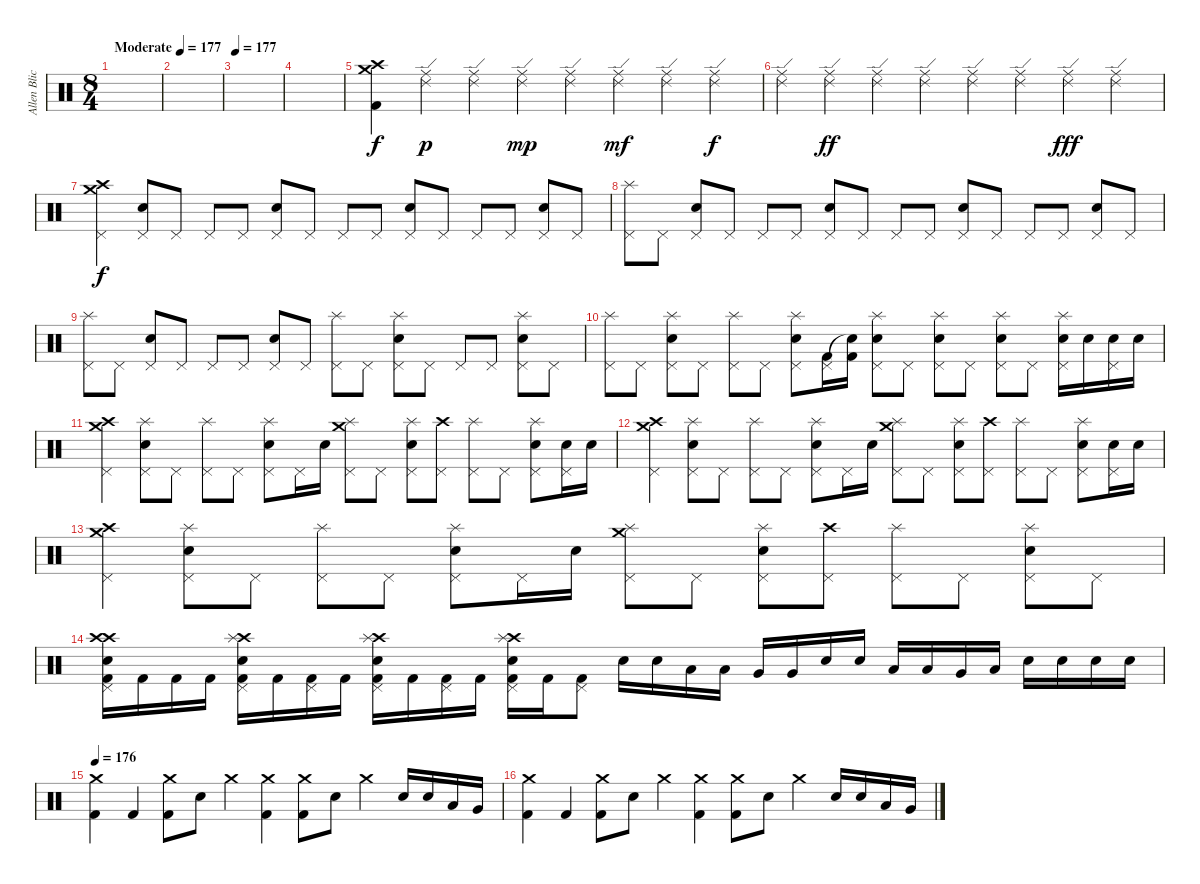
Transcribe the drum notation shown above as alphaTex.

\track ("Allen Blickle" "Allen Blic") {instrument percussion}
\staff {score}
\articulation defaults
\ts (8 4)
\tempo (177 "Moderate")
\tempo 175
\tempo (177 "Moderate")
\clef neutral
\ks c
|
|
\tempo 177
|
|
("Crash medium (hit)" "Crash high (hit)" "Kick (hit) 2").4 ("Ride (edge) 2" "Ride (middle)").4{dy p} ("Ride (edge) 2" "Ride (middle)").4 ("Ride (edge) 2" "Ride (middle)").4{dy mp} ("Ride (edge) 2" "Ride (middle)").4 ("Ride (edge) 2" "Ride (middle)").4{dy mf} ("Ride (edge) 2" "Ride (middle)").4 ("Ride (edge) 2" "Ride (middle)").4{dy f} |
("Ride (edge) 2" "Ride (middle)").4 ("Ride (edge) 2" "Ride (middle)").4{dy ff} ("Ride (edge) 2" "Ride (middle)").4 ("Ride (edge) 2" "Ride (middle)").4 ("Ride (edge) 2" "Ride (middle)").4 ("Ride (edge) 2" "Ride (middle)").4 ("Ride (edge) 2" "Ride (middle)").4{dy fff} ("Ride (edge) 2" "Ride (middle)").4 |
("Crash medium (hit)" "Pedal Hi-Hat (hit)" "Crash high (hit)").4{dy f} ("Pedal Hi-Hat (hit)" "Electric Snare (hit)").8 "Pedal Hi-Hat (hit)".8 "Pedal Hi-Hat (hit)".8 "Pedal Hi-Hat (hit)".8 ("Pedal Hi-Hat (hit)" "Electric Snare (hit)").8 "Pedal Hi-Hat (hit)".8 "Pedal Hi-Hat (hit)".8 "Pedal Hi-Hat (hit)".8 ("Pedal Hi-Hat (hit)" "Electric Snare (hit)").8 "Pedal Hi-Hat (hit)".8 "Pedal Hi-Hat (hit)".8 "Pedal Hi-Hat (hit)".8 ("Pedal Hi-Hat (hit)" "Electric Snare (hit)").8 "Pedal Hi-Hat (hit)".8 |
("Pedal Hi-Hat (hit)" "Splash (hit)").8 "Pedal Hi-Hat (hit)".8 ("Pedal Hi-Hat (hit)" "Electric Snare (hit)").8 "Pedal Hi-Hat (hit)".8 "Pedal Hi-Hat (hit)".8 "Pedal Hi-Hat (hit)".8 ("Pedal Hi-Hat (hit)" "Electric Snare (hit)").8 "Pedal Hi-Hat (hit)".8 "Pedal Hi-Hat (hit)".8 "Pedal Hi-Hat (hit)".8 ("Pedal Hi-Hat (hit)" "Electric Snare (hit)").8 "Pedal Hi-Hat (hit)".8 "Pedal Hi-Hat (hit)".8 "Pedal Hi-Hat (hit)".8 ("Pedal Hi-Hat (hit)" "Electric Snare (hit)").8 "Pedal Hi-Hat (hit)".8 |
("Pedal Hi-Hat (hit)" "Splash (hit)").8 "Pedal Hi-Hat (hit)".8 ("Pedal Hi-Hat (hit)" "Electric Snare (hit)").8 "Pedal Hi-Hat (hit)".8 "Pedal Hi-Hat (hit)".8 "Pedal Hi-Hat (hit)".8 ("Pedal Hi-Hat (hit)" "Electric Snare (hit)").8 "Pedal Hi-Hat (hit)".8 ("Pedal Hi-Hat (hit)" "Splash (hit)").8 "Pedal Hi-Hat (hit)".8 ("Pedal Hi-Hat (hit)" "Splash (hit)" "Electric Snare (hit)").8 "Pedal Hi-Hat (hit)".8 "Pedal Hi-Hat (hit)".8 "Pedal Hi-Hat (hit)".8 ("Pedal Hi-Hat (hit)" "Splash (hit)" "Electric Snare (hit)").8 "Pedal Hi-Hat (hit)".8 |
("Pedal Hi-Hat (hit)" "Splash (hit)").8 "Pedal Hi-Hat (hit)".8 ("Pedal Hi-Hat (hit)" "Splash (hit)" "Electric Snare (hit)").8 "Pedal Hi-Hat (hit)".8 ("Pedal Hi-Hat (hit)" "Splash (hit)").8 "Pedal Hi-Hat (hit)".8 ("Pedal Hi-Hat (hit)" "Splash (hit)" "Electric Snare (hit)").8 ("Pedal Hi-Hat (hit)" "Kick (hit) 2").16 ("Snare (hit)"{t} "Kick (hit) 2").16 ("Pedal Hi-Hat (hit)" "Splash (hit)" "Electric Snare (hit)").8 "Pedal Hi-Hat (hit)".8 ("Pedal Hi-Hat (hit)" "Splash (hit)" "Electric Snare (hit)").8 "Pedal Hi-Hat (hit)".8 ("Pedal Hi-Hat (hit)" "Splash (hit)" "Electric Snare (hit)").8 "Pedal Hi-Hat (hit)".8 ("Pedal Hi-Hat (hit)" "Splash (hit)" "Electric Snare (hit)").16 "Electric Snare (hit)".16 ("Pedal Hi-Hat (hit)" "Electric Snare (hit)").16 "Electric Snare (hit)".16 |
("Crash medium (hit)" "Pedal Hi-Hat (hit)" "Crash high (hit)").4 ("Pedal Hi-Hat (hit)" "Splash (hit)" "Electric Snare (hit)").8 "Pedal Hi-Hat (hit)".8 ("Pedal Hi-Hat (hit)" "Splash (hit)").8 "Pedal Hi-Hat (hit)".8 ("Pedal Hi-Hat (hit)" "Splash (hit)" "Electric Snare (hit)").8 "Pedal Hi-Hat (hit)".16 "Electric Snare (hit)".16 ("Crash medium (hit)" "Pedal Hi-Hat (hit)" "Splash (hit)").8 "Pedal Hi-Hat (hit)".8 ("Pedal Hi-Hat (hit)" "Splash (hit)" "Electric Snare (hit)").8 ("Crash high (hit)" "Pedal Hi-Hat (hit)").8 ("Pedal Hi-Hat (hit)" "Splash (hit)").8 "Pedal Hi-Hat (hit)".8 ("Pedal Hi-Hat (hit)" "Splash (hit)" "Electric Snare (hit)").8 ("Pedal Hi-Hat (hit)" "Electric Snare (hit)").16 "Electric Snare (hit)".16 |
("Crash medium (hit)" "Pedal Hi-Hat (hit)" "Crash high (hit)").4 ("Pedal Hi-Hat (hit)" "Splash (hit)" "Electric Snare (hit)").8 "Pedal Hi-Hat (hit)".8 ("Pedal Hi-Hat (hit)" "Splash (hit)").8 "Pedal Hi-Hat (hit)".8 ("Pedal Hi-Hat (hit)" "Splash (hit)" "Electric Snare (hit)").8 "Pedal Hi-Hat (hit)".16 "Electric Snare (hit)".16 ("Crash medium (hit)" "Pedal Hi-Hat (hit)" "Splash (hit)").8 "Pedal Hi-Hat (hit)".8 ("Pedal Hi-Hat (hit)" "Splash (hit)" "Electric Snare (hit)").8 ("Crash high (hit)" "Pedal Hi-Hat (hit)").8 ("Pedal Hi-Hat (hit)" "Splash (hit)").8 "Pedal Hi-Hat (hit)".8 ("Pedal Hi-Hat (hit)" "Splash (hit)" "Electric Snare (hit)").8 ("Pedal Hi-Hat (hit)" "Electric Snare (hit)").16 "Electric Snare (hit)".16 |
("Crash medium (hit)" "Pedal Hi-Hat (hit)" "Crash high (hit)").4 ("Pedal Hi-Hat (hit)" "Splash (hit)" "Electric Snare (hit)").8 "Pedal Hi-Hat (hit)".8 ("Pedal Hi-Hat (hit)" "Splash (hit)").8 "Pedal Hi-Hat (hit)".8 ("Pedal Hi-Hat (hit)" "Splash (hit)" "Electric Snare (hit)").8 "Pedal Hi-Hat (hit)".16 "Electric Snare (hit)".16 ("Crash medium (hit)" "Pedal Hi-Hat (hit)" "Splash (hit)").8 "Pedal Hi-Hat (hit)".8 ("Pedal Hi-Hat (hit)" "Splash (hit)" "Electric Snare (hit)").8 ("Crash high (hit)" "Pedal Hi-Hat (hit)").8 ("Pedal Hi-Hat (hit)" "Splash (hit)").8 "Pedal Hi-Hat (hit)".8 ("Pedal Hi-Hat (hit)" "Splash (hit)" "Electric Snare (hit)").8 "Pedal Hi-Hat (hit)".8 |
("Crash high (hit)" "Pedal Hi-Hat (hit)" "Crash high (hit)" "Electric Snare (hit)" "Kick (hit) 2").16 "Kick (hit) 2".16 "Kick (hit) 2".16 "Kick (hit) 2".16 ("Crash high (hit)" "Pedal Hi-Hat (hit)" "Splash (hit)" "Electric Snare (hit)" "Kick (hit) 2").16 "Kick (hit) 2".16 ("Pedal Hi-Hat (hit)" "Kick (hit) 2").16 "Kick (hit) 2".16 ("Crash high (hit)" "Pedal Hi-Hat (hit)" "Splash (hit)" "Electric Snare (hit)" "Kick (hit) 2").16 "Kick (hit) 2".16 ("Pedal Hi-Hat (hit)" "Kick (hit) 2").16 "Kick (hit) 2".16 ("Crash high (hit)" "Pedal Hi-Hat (hit)" "Splash (hit)" "Electric Snare (hit)" "Kick (hit) 2").16 "Kick (hit) 2".16 ("Pedal Hi-Hat (hit)" "Kick (hit) 2").8 "Electric Snare (hit)".16 "Electric Snare (hit)".16 "Low Tom (hit)".16 "Low Tom (hit)".16 "Very Low Tom (hit)".16 "Very Low Tom (hit)".16 "Electric Snare (hit)".16 "Electric Snare (hit)".16 "Low Tom (hit)".16 "Low Tom (hit)".16 "Very Low Tom (hit)".16 "Low Tom (hit)".16 "Electric Snare (hit)".16 "Electric Snare (hit)".16 "Electric Snare (hit)".16 "Electric Snare (hit)".16 |
\tempo 176
("Crash medium (hit)" "Kick (hit) 2").4 "Kick (hit) 2".4 ("Crash medium (hit)" "Kick (hit) 2").8 "Electric Snare (hit)".8 "Crash medium (hit)".4 ("Crash medium (hit)" "Kick (hit) 2").4 ("Crash medium (hit)" "Kick (hit) 2").8 "Electric Snare (hit)".8 "Crash medium (hit)".4 "Electric Snare (hit)".16 "Electric Snare (hit)".16 "Low Tom (hit)".16 "Very Low Tom (hit)".16 |
("Crash medium (hit)" "Kick (hit) 2").4 "Kick (hit) 2".4 ("Crash medium (hit)" "Kick (hit) 2").8 "Electric Snare (hit)".8 "Crash medium (hit)".4 ("Crash medium (hit)" "Kick (hit) 2").4 ("Crash medium (hit)" "Kick (hit) 2").8 "Electric Snare (hit)".8 "Crash medium (hit)".4 "Electric Snare (hit)".16 "Electric Snare (hit)".16 "Low Tom (hit)".16 "Very Low Tom (hit)".16
